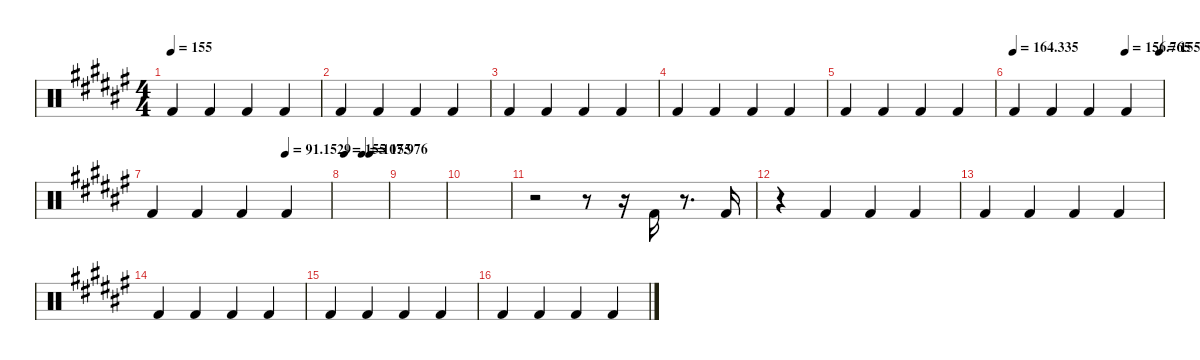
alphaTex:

\hideDynamics
\bracketExtendMode nobrackets
\singleTrackTrackNamePolicy hidden
\multiTrackTrackNamePolicy hidden
\otherSystemsTrackNameOrientation horizontal
\track ("Kick" "Drums") {instrument percussion}
\staff {score}
\articulation defaults
\ts (4 4)
\tempo 155
\clef neutral
\ks f# "Kick (hit) 2"{acc forcenatural}.4{dy p beam Up} "Kick (hit) 2"{acc forcenatural}.4{beam Up} "Kick (hit) 2"{acc forcenatural}.4{beam Up} "Kick (hit) 2"{acc forcenatural}.4{beam Up}
|
"Kick (hit) 2"{acc forcenatural}.4{beam Up} "Kick (hit) 2"{acc forcenatural}.4{beam Up} "Kick (hit) 2"{acc forcenatural}.4{beam Up} "Kick (hit) 2"{acc forcenatural}.4{beam Up} |
"Kick (hit) 2"{acc forcenatural}.4{beam Up} "Kick (hit) 2"{acc forcenatural}.4{beam Up} "Kick (hit) 2"{acc forcenatural}.4{beam Up} "Kick (hit) 2"{acc forcenatural}.4{beam Up} |
"Kick (hit) 2"{acc forcenatural}.4{beam Up} "Kick (hit) 2"{acc forcenatural}.4{beam Up} "Kick (hit) 2"{acc forcenatural}.4{beam Up} "Kick (hit) 2"{acc forcenatural}.4{beam Up} |
"Kick (hit) 2"{acc forcenatural}.4{beam Up} "Kick (hit) 2"{acc forcenatural}.4{beam Up} "Kick (hit) 2"{acc forcenatural}.4{beam Up} "Kick (hit) 2"{acc forcenatural}.4{beam Up} |
\tempo
164.335
\tempo (156.765 0.75)
\tempo (155 0.98125)
"Kick (hit) 2"{acc forcenatural}.4{dy mp beam Up} "Kick (hit) 2"{acc forcenatural}.4{beam Up} "Kick (hit) 2"{acc forcenatural}.4{beam Up} "Kick (hit) 2"{acc forcenatural}.4{beam Up} |
\tempo (91.1529 0.75)
"Kick (hit) 2"{acc forcenatural}.4{beam Up} "Kick (hit) 2"{acc forcenatural}.4{beam Up} "Kick (hit) 2"{acc forcenatural}.4{beam Up} "Kick (hit) 2"{acc forcenatural}.4{beam Up} |
\tempo (155 0.01875)
\tempo (107.976 0.41875)
\tempo (155 0.59375)
|
|
|
r.2{beam Down} r.8{beam Down} r.16{beam Down} "Kick (hit) 2"{acc forcenatural}.16{dy mf beam Up} r.8{d beam Up} "Kick (hit) 2"{acc forcenatural}.16{beam Up} |
r.4{beam Down} "Kick (hit) 2"{acc forcenatural}.4{dy mp beam Up} "Kick (hit) 2"{acc forcenatural}.4{beam Up} "Kick (hit) 2"{acc forcenatural}.4{beam Up} |
"Kick (hit) 2"{acc forcenatural}.4{beam Up} "Kick (hit) 2"{acc forcenatural}.4{beam Up} "Kick (hit) 2"{acc forcenatural}.4{beam Up} "Kick (hit) 2"{acc forcenatural}.4{beam Up} |
"Kick (hit) 2"{acc forcenatural}.4{beam Up} "Kick (hit) 2"{acc forcenatural}.4{beam Up} "Kick (hit) 2"{acc forcenatural}.4{beam Up} "Kick (hit) 2"{acc forcenatural}.4{beam Up} |
"Kick (hit) 2"{acc forcenatural}.4{beam Up} "Kick (hit) 2"{acc forcenatural}.4{beam Up} "Kick (hit) 2"{acc forcenatural}.4{beam Up} "Kick (hit) 2"{acc forcenatural}.4{beam Up} |
"Kick (hit) 2"{acc forcenatural}.4{beam Up} "Kick (hit) 2"{acc forcenatural}.4{beam Up} "Kick (hit) 2"{acc forcenatural}.4{beam Up} "Kick (hit) 2"{acc forcenatural}.4{beam Up}
